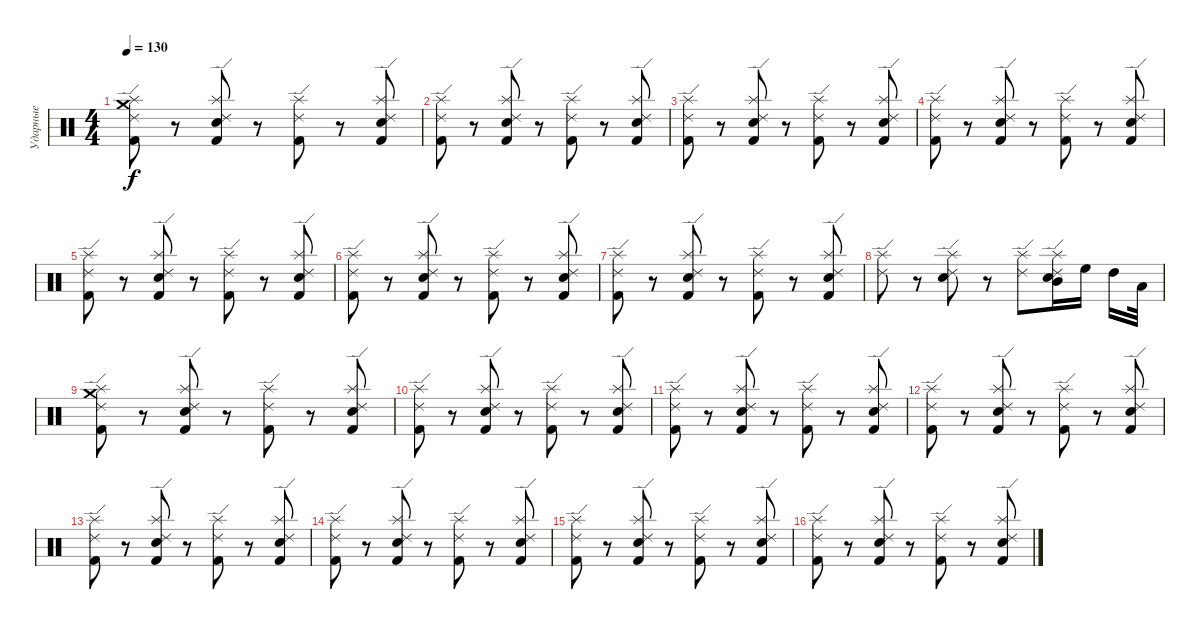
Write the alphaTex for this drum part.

\track ("Ударные" "Ударные") {instrument percussion}
\staff {score}
\articulation defaults
\ts (4 4)
\tempo 130
\clef neutral
\ks c
("Kick (hit) 2" "Ride (edge) 2" "Splash (hit)" "Crash medium (hit)").8{dy f} r.8 ("Kick (hit) 2" "Hand Clap (hit)" "Ride (edge) 2" "Splash (hit)").8 r.8 ("Kick (hit) 2" "Ride (edge) 2" "Splash (hit)").8 r.8 ("Kick (hit) 2" "Hand Clap (hit)" "Ride (edge) 2" "Splash (hit)").8 |
("Kick (hit) 2" "Ride (edge) 2" "Splash (hit)").8 r.8 ("Kick (hit) 2" "Hand Clap (hit)" "Ride (edge) 2" "Splash (hit)").8 r.8 ("Kick (hit) 2" "Ride (edge) 2" "Splash (hit)").8 r.8 ("Kick (hit) 2" "Hand Clap (hit)" "Ride (edge) 2" "Splash (hit)").8 |
("Kick (hit) 2" "Ride (edge) 2" "Splash (hit)").8 r.8 ("Kick (hit) 2" "Hand Clap (hit)" "Ride (edge) 2" "Splash (hit)").8 r.8 ("Kick (hit) 2" "Ride (edge) 2" "Splash (hit)").8 r.8 ("Kick (hit) 2" "Hand Clap (hit)" "Ride (edge) 2" "Splash (hit)").8 |
("Kick (hit) 2" "Ride (edge) 2" "Splash (hit)").8 r.8 ("Kick (hit) 2" "Hand Clap (hit)" "Ride (edge) 2" "Splash (hit)").8 r.8 ("Kick (hit) 2" "Ride (edge) 2" "Splash (hit)").8 r.8 ("Kick (hit) 2" "Hand Clap (hit)" "Ride (edge) 2" "Splash (hit)").8 |
("Kick (hit) 2" "Ride (edge) 2" "Splash (hit)").8 r.8 ("Kick (hit) 2" "Hand Clap (hit)" "Ride (edge) 2" "Splash (hit)").8 r.8 ("Kick (hit) 2" "Ride (edge) 2" "Splash (hit)").8 r.8 ("Kick (hit) 2" "Hand Clap (hit)" "Ride (edge) 2" "Splash (hit)").8 |
("Kick (hit) 2" "Ride (edge) 2" "Splash (hit)").8 r.8 ("Kick (hit) 2" "Hand Clap (hit)" "Ride (edge) 2" "Splash (hit)").8 r.8 ("Kick (hit) 2" "Ride (edge) 2" "Splash (hit)").8 r.8 ("Kick (hit) 2" "Hand Clap (hit)" "Ride (edge) 2" "Splash (hit)").8 |
("Kick (hit) 2" "Ride (edge) 2" "Splash (hit)").8 r.8 ("Kick (hit) 2" "Hand Clap (hit)" "Ride (edge) 2" "Splash (hit)").8 r.8 ("Kick (hit) 2" "Ride (edge) 2" "Splash (hit)").8 r.8 ("Kick (hit) 2" "Hand Clap (hit)" "Ride (edge) 2" "Splash (hit)").8 |
("Ride (edge) 2" "Splash (hit)").8 r.8 ("Hand Clap (hit)" "Ride (edge) 2" "Splash (hit)").8 r.8 ("Ride (edge) 2" "Splash (hit)").8 ("Mid Tom (hit)" "Hand Clap (hit)" "Ride (edge) 2" "Splash (hit)").16 "High Floor Tom (hit)".16 "High Tom (hit)".16 "Low Tom (hit)".32 |
("Kick (hit) 2" "Ride (edge) 2" "Splash (hit)" "Crash medium (hit)").8 r.8 ("Kick (hit) 2" "Hand Clap (hit)" "Ride (edge) 2" "Splash (hit)").8 r.8 ("Kick (hit) 2" "Ride (edge) 2" "Splash (hit)").8 r.8 ("Kick (hit) 2" "Hand Clap (hit)" "Ride (edge) 2" "Splash (hit)").8 |
("Kick (hit) 2" "Ride (edge) 2" "Splash (hit)").8 r.8 ("Kick (hit) 2" "Hand Clap (hit)" "Ride (edge) 2" "Splash (hit)").8 r.8 ("Kick (hit) 2" "Ride (edge) 2" "Splash (hit)").8 r.8 ("Kick (hit) 2" "Hand Clap (hit)" "Ride (edge) 2" "Splash (hit)").8 |
("Kick (hit) 2" "Ride (edge) 2" "Splash (hit)").8 r.8 ("Kick (hit) 2" "Hand Clap (hit)" "Ride (edge) 2" "Splash (hit)").8 r.8 ("Kick (hit) 2" "Ride (edge) 2" "Splash (hit)").8 r.8 ("Kick (hit) 2" "Hand Clap (hit)" "Ride (edge) 2" "Splash (hit)").8 |
("Kick (hit) 2" "Ride (edge) 2" "Splash (hit)").8 r.8 ("Kick (hit) 2" "Hand Clap (hit)" "Ride (edge) 2" "Splash (hit)").8 r.8 ("Kick (hit) 2" "Ride (edge) 2" "Splash (hit)").8 r.8 ("Kick (hit) 2" "Hand Clap (hit)" "Ride (edge) 2" "Splash (hit)").8 |
("Kick (hit) 2" "Ride (edge) 2" "Splash (hit)").8 r.8 ("Kick (hit) 2" "Hand Clap (hit)" "Ride (edge) 2" "Splash (hit)").8 r.8 ("Kick (hit) 2" "Ride (edge) 2" "Splash (hit)").8 r.8 ("Kick (hit) 2" "Hand Clap (hit)" "Ride (edge) 2" "Splash (hit)").8 |
("Kick (hit) 2" "Ride (edge) 2" "Splash (hit)").8 r.8 ("Kick (hit) 2" "Hand Clap (hit)" "Ride (edge) 2" "Splash (hit)").8 r.8 ("Kick (hit) 2" "Ride (edge) 2" "Splash (hit)").8 r.8 ("Kick (hit) 2" "Hand Clap (hit)" "Ride (edge) 2" "Splash (hit)").8 |
("Kick (hit) 2" "Ride (edge) 2" "Splash (hit)").8 r.8 ("Kick (hit) 2" "Hand Clap (hit)" "Ride (edge) 2" "Splash (hit)").8 r.8 ("Kick (hit) 2" "Ride (edge) 2" "Splash (hit)").8 r.8 ("Kick (hit) 2" "Hand Clap (hit)" "Ride (edge) 2" "Splash (hit)").8 |
("Kick (hit) 2" "Ride (edge) 2" "Splash (hit)").8 r.8 ("Kick (hit) 2" "Hand Clap (hit)" "Ride (edge) 2" "Splash (hit)").8 r.8 ("Kick (hit) 2" "Ride (edge) 2" "Splash (hit)").8 r.8 ("Kick (hit) 2" "Hand Clap (hit)" "Ride (edge) 2" "Splash (hit)").8
